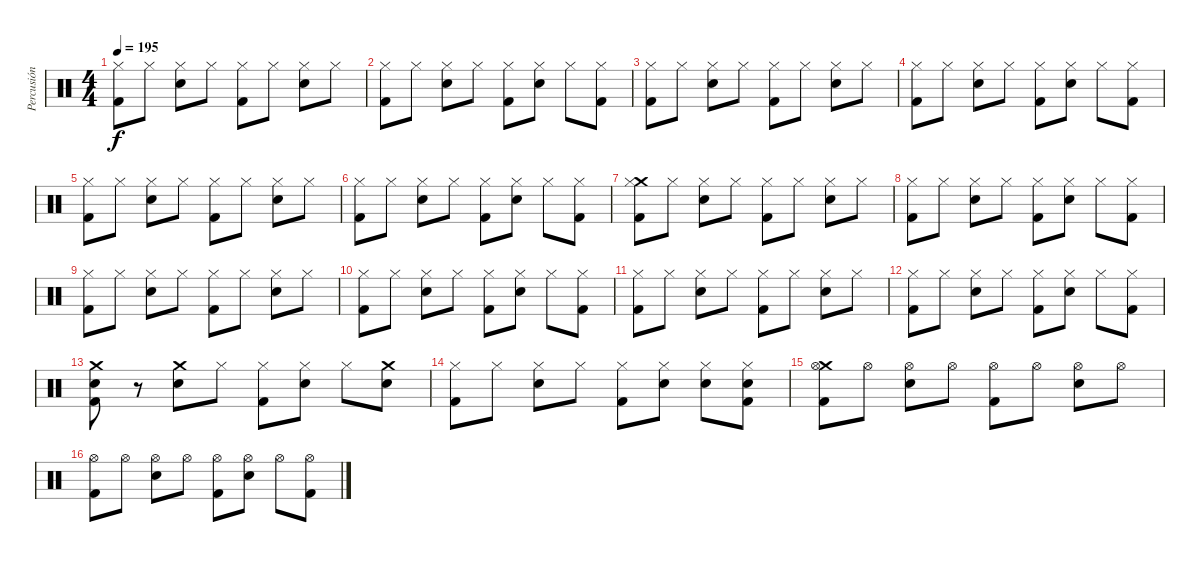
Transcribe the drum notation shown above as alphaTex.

\track ("Percusión" "Percusión") {instrument percussion}
\staff {score}
\articulation defaults
\ts (4 4)
\tempo 195
\clef neutral
\ks c
("Hi-Hat (closed)" "Kick (hit) 2").8{dy f} "Hi-Hat (closed)".8 ("Hi-Hat (closed)" "Snare (hit) 2").8 "Hi-Hat (closed)".8 ("Hi-Hat (closed)" "Kick (hit) 2").8 "Hi-Hat (closed)".8 ("Hi-Hat (closed)" "Snare (hit) 2").8 "Hi-Hat (closed)".8 |
("Hi-Hat (closed)" "Kick (hit) 2").8 "Hi-Hat (closed)".8 ("Hi-Hat (closed)" "Snare (hit) 2").8 "Hi-Hat (closed)".8 ("Hi-Hat (closed)" "Kick (hit) 2").8 ("Hi-Hat (closed)" "Snare (hit) 2").8 "Hi-Hat (closed)".8 ("Hi-Hat (closed)" "Kick (hit) 2").8 |
("Hi-Hat (closed)" "Kick (hit) 2").8 "Hi-Hat (closed)".8 ("Hi-Hat (closed)" "Snare (hit) 2").8 "Hi-Hat (closed)".8 ("Hi-Hat (closed)" "Kick (hit) 2").8 "Hi-Hat (closed)".8 ("Hi-Hat (closed)" "Snare (hit) 2").8 "Hi-Hat (closed)".8 |
("Hi-Hat (closed)" "Kick (hit) 2").8 "Hi-Hat (closed)".8 ("Hi-Hat (closed)" "Snare (hit) 2").8 "Hi-Hat (closed)".8 ("Hi-Hat (closed)" "Kick (hit) 2").8 ("Hi-Hat (closed)" "Snare (hit) 2").8 "Hi-Hat (closed)".8 ("Hi-Hat (closed)" "Kick (hit) 2").8 |
("Hi-Hat (closed)" "Kick (hit) 2").8 "Hi-Hat (closed)".8 ("Hi-Hat (closed)" "Snare (hit) 2").8 "Hi-Hat (closed)".8 ("Hi-Hat (closed)" "Kick (hit) 2").8 "Hi-Hat (closed)".8 ("Hi-Hat (closed)" "Snare (hit) 2").8 "Hi-Hat (closed)".8 |
("Hi-Hat (closed)" "Kick (hit) 2").8 "Hi-Hat (closed)".8 ("Hi-Hat (closed)" "Snare (hit) 2").8 "Hi-Hat (closed)".8 ("Hi-Hat (closed)" "Kick (hit) 2").8 ("Hi-Hat (closed)" "Snare (hit) 2").8 "Hi-Hat (closed)".8 ("Hi-Hat (closed)" "Kick (hit) 2").8 |
("Crash medium (hit)" "Hi-Hat (closed)" "Kick (hit) 2").8 "Hi-Hat (closed)".8 ("Hi-Hat (closed)" "Snare (hit) 2").8 "Hi-Hat (closed)".8 ("Hi-Hat (closed)" "Kick (hit) 2").8 "Hi-Hat (closed)".8 ("Hi-Hat (closed)" "Snare (hit) 2").8 "Hi-Hat (closed)".8 |
("Hi-Hat (closed)" "Kick (hit) 2").8 "Hi-Hat (closed)".8 ("Hi-Hat (closed)" "Snare (hit) 2").8 "Hi-Hat (closed)".8 ("Hi-Hat (closed)" "Kick (hit) 2").8 ("Hi-Hat (closed)" "Snare (hit) 2").8 "Hi-Hat (closed)".8 ("Hi-Hat (closed)" "Kick (hit) 2").8 |
("Hi-Hat (closed)" "Kick (hit) 2").8 "Hi-Hat (closed)".8 ("Hi-Hat (closed)" "Snare (hit) 2").8 "Hi-Hat (closed)".8 ("Hi-Hat (closed)" "Kick (hit) 2").8 "Hi-Hat (closed)".8 ("Hi-Hat (closed)" "Snare (hit) 2").8 "Hi-Hat (closed)".8 |
("Hi-Hat (closed)" "Kick (hit) 2").8 "Hi-Hat (closed)".8 ("Hi-Hat (closed)" "Snare (hit) 2").8 "Hi-Hat (closed)".8 ("Hi-Hat (closed)" "Kick (hit) 2").8 ("Hi-Hat (closed)" "Snare (hit) 2").8 "Hi-Hat (closed)".8 ("Hi-Hat (closed)" "Kick (hit) 2").8 |
("Hi-Hat (closed)" "Kick (hit) 2").8 "Hi-Hat (closed)".8 ("Hi-Hat (closed)" "Snare (hit) 2").8 "Hi-Hat (closed)".8 ("Hi-Hat (closed)" "Kick (hit) 2").8 "Hi-Hat (closed)".8 ("Hi-Hat (closed)" "Snare (hit) 2").8 "Hi-Hat (closed)".8 |
("Hi-Hat (closed)" "Kick (hit) 2").8 "Hi-Hat (closed)".8 ("Hi-Hat (closed)" "Snare (hit) 2").8 "Hi-Hat (closed)".8 ("Hi-Hat (closed)" "Kick (hit) 2").8 ("Hi-Hat (closed)" "Snare (hit) 2").8 "Hi-Hat (closed)".8 ("Hi-Hat (closed)" "Kick (hit) 2").8 |
("Crash medium (hit)" "Snare (hit) 2" "Kick (hit) 2").8 r.8 ("Crash medium (hit)" "Snare (hit) 2").8 "Hi-Hat (closed)".8 ("Hi-Hat (closed)" "Kick (hit) 2").8 ("Hi-Hat (closed)" "Snare (hit) 2").8 "Hi-Hat (closed)".8 ("Crash medium (hit)" "Snare (hit) 2").8 |
("Hi-Hat (closed)" "Kick (hit) 2").8 "Hi-Hat (closed)".8 ("Hi-Hat (closed)" "Snare (hit) 2").8 "Hi-Hat (closed)".8 ("Hi-Hat (closed)" "Kick (hit) 2").8 ("Hi-Hat (closed)" "Snare (hit) 2").8 ("Hi-Hat (closed)" "Snare (hit) 2").8 ("Hi-Hat (closed)" "Snare (hit) 2" "Kick (hit) 2").8 |
("Crash medium (hit)" "Hi-Hat (open)" "Kick (hit) 2").8 "Hi-Hat (open)".8 ("Hi-Hat (open)" "Snare (hit) 2").8 "Hi-Hat (open)".8 ("Hi-Hat (open)" "Kick (hit) 2").8 "Hi-Hat (open)".8 ("Hi-Hat (open)" "Snare (hit) 2").8 "Hi-Hat (open)".8 |
("Hi-Hat (open)" "Kick (hit) 2").8 "Hi-Hat (open)".8 ("Hi-Hat (open)" "Snare (hit) 2").8 "Hi-Hat (open)".8 ("Hi-Hat (open)" "Kick (hit) 2").8 ("Hi-Hat (open)" "Snare (hit) 2").8 "Hi-Hat (open)".8 ("Hi-Hat (open)" "Kick (hit) 2").8
